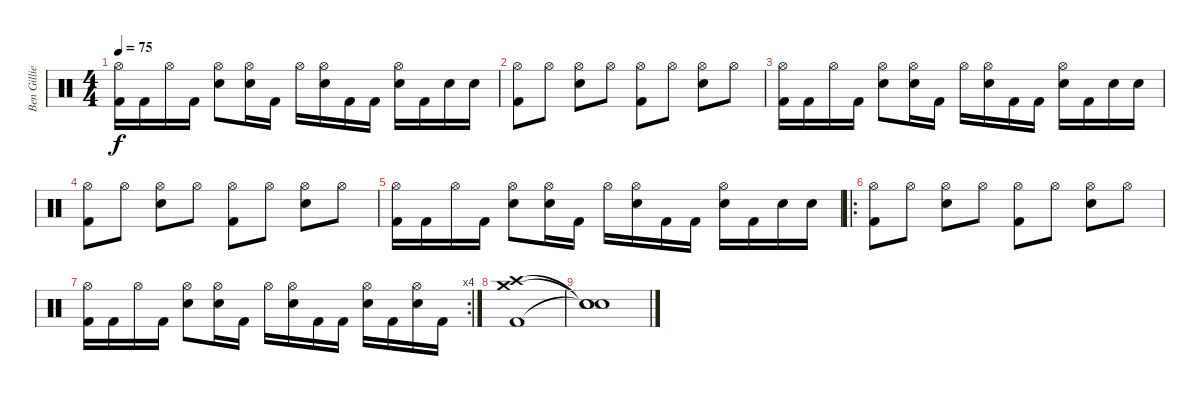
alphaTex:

\track ("Ben Gillies" "Ben Gillie") {instrument percussion}
\staff {score}
\articulation defaults
\ts (4 4)
\tempo 75
\clef neutral
\ks c
("Hi-Hat (open)" "Kick (hit) 2").16{dy f} "Kick (hit) 2".16 "Hi-Hat (open)".16 "Kick (hit) 2".16 ("Hi-Hat (open)" "Electric Snare (hit)").8 ("Hi-Hat (open)" "Electric Snare (hit)").16 "Kick (hit) 2".16 "Hi-Hat (open)".16 ("Hi-Hat (open)" "Electric Snare (hit)").16 "Kick (hit) 2".16 "Kick (hit) 2".16 ("Hi-Hat (open)" "Electric Snare (hit)").16 "Kick (hit) 2".16 "Electric Snare (hit)".16 "Electric Snare (hit)".16 |
("Hi-Hat (open)" "Kick (hit) 2").8 "Hi-Hat (open)".8 ("Hi-Hat (open)" "Electric Snare (hit)").8 "Hi-Hat (open)".8 ("Hi-Hat (open)" "Kick (hit) 2").8 "Hi-Hat (open)".8 ("Hi-Hat (open)" "Electric Snare (hit)").8 "Hi-Hat (open)".8 |
("Hi-Hat (open)" "Kick (hit) 2").16 "Kick (hit) 2".16 "Hi-Hat (open)".16 "Kick (hit) 2".16 ("Hi-Hat (open)" "Electric Snare (hit)").8 ("Hi-Hat (open)" "Electric Snare (hit)").16 "Kick (hit) 2".16 "Hi-Hat (open)".16 ("Hi-Hat (open)" "Electric Snare (hit)").16 "Kick (hit) 2".16 "Kick (hit) 2".16 ("Hi-Hat (open)" "Electric Snare (hit)").16 "Kick (hit) 2".16 "Electric Snare (hit)".16 "Electric Snare (hit)".16 |
("Hi-Hat (open)" "Kick (hit) 2").8 "Hi-Hat (open)".8 ("Hi-Hat (open)" "Electric Snare (hit)").8 "Hi-Hat (open)".8 ("Hi-Hat (open)" "Kick (hit) 2").8 "Hi-Hat (open)".8 ("Hi-Hat (open)" "Electric Snare (hit)").8 "Hi-Hat (open)".8 |
("Hi-Hat (open)" "Kick (hit) 2").16 "Kick (hit) 2".16 "Hi-Hat (open)".16 "Kick (hit) 2".16 ("Hi-Hat (open)" "Electric Snare (hit)").8 ("Hi-Hat (open)" "Electric Snare (hit)").16 "Kick (hit) 2".16 "Hi-Hat (open)".16 ("Hi-Hat (open)" "Electric Snare (hit)").16 "Kick (hit) 2".16 "Kick (hit) 2".16 ("Hi-Hat (open)" "Electric Snare (hit)").16 "Kick (hit) 2".16 "Electric Snare (hit)".16 "Electric Snare (hit)".16 |
\ro
("Hi-Hat (open)" "Kick (hit) 2").8 "Hi-Hat (open)".8 ("Hi-Hat (open)" "Electric Snare (hit)").8 "Hi-Hat (open)".8 ("Hi-Hat (open)" "Kick (hit) 2").8 "Hi-Hat (open)".8 ("Hi-Hat (open)" "Electric Snare (hit)").8 "Hi-Hat (open)".8 |
\rc 4
("Hi-Hat (open)" "Kick (hit) 2").16 "Kick (hit) 2".16 "Hi-Hat (open)".16 "Kick (hit) 2".16 ("Hi-Hat (open)" "Electric Snare (hit)").8 ("Hi-Hat (open)" "Electric Snare (hit)").16 "Kick (hit) 2".16 "Hi-Hat (open)".16 ("Hi-Hat (open)" "Electric Snare (hit)").16 "Kick (hit) 2".16 "Kick (hit) 2".16 ("Hi-Hat (open)" "Electric Snare (hit)").16 "Kick (hit) 2".16 ("Hi-Hat (open)" "Electric Snare (hit)").16 "Kick (hit) 2".16 |
("Crash high (hit)" "Crash medium (hit)" "Kick (hit) 2").1 |
("Snare (hit)"{t} "Snare (hit)"{t} "Snare (hit)"{t}).1
